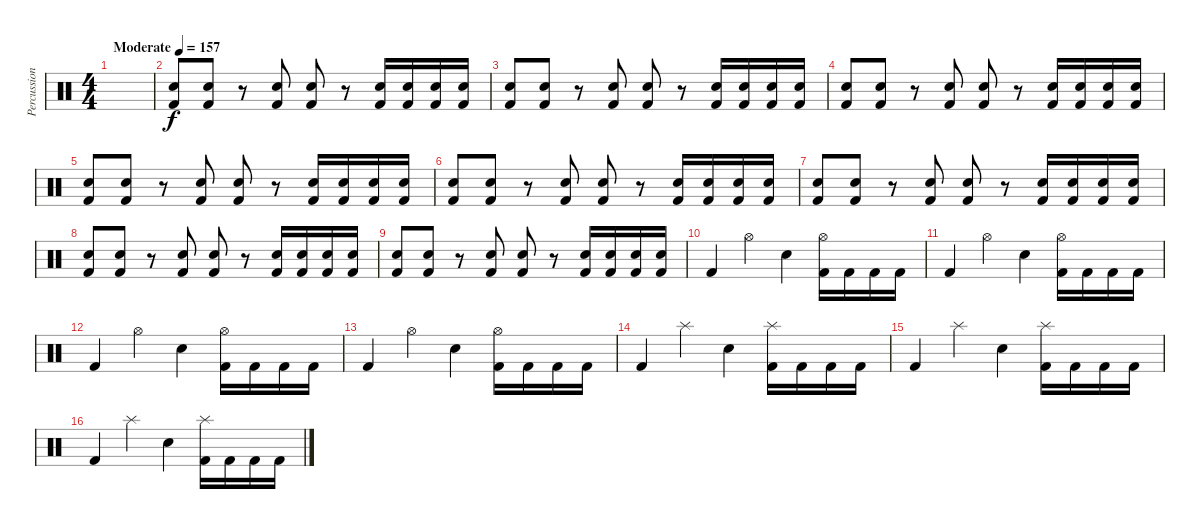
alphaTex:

\track ("Percussion" "Percussion") {instrument percussion}
\staff {score}
\articulation defaults
\ts (4 4)
\tempo (157 "Moderate")
\clef neutral
\ks c
|
("Kick (hit) 2" "Snare (hit) 2").8 ("Kick (hit) 2" "Snare (hit) 2").8 r.8 ("Kick (hit) 2" "Snare (hit) 2").8 ("Kick (hit) 2" "Snare (hit) 2").8 r.8 ("Kick (hit) 2" "Snare (hit) 2").16 ("Kick (hit) 2" "Snare (hit) 2").16 ("Kick (hit) 2" "Snare (hit) 2").16 ("Kick (hit) 2" "Snare (hit) 2").16 |
("Kick (hit) 2" "Snare (hit) 2").8 ("Kick (hit) 2" "Snare (hit) 2").8 r.8 ("Kick (hit) 2" "Snare (hit) 2").8 ("Kick (hit) 2" "Snare (hit) 2").8 r.8 ("Kick (hit) 2" "Snare (hit) 2").16 ("Kick (hit) 2" "Snare (hit) 2").16 ("Kick (hit) 2" "Snare (hit) 2").16 ("Kick (hit) 2" "Snare (hit) 2").16 |
("Kick (hit) 2" "Snare (hit) 2").8 ("Kick (hit) 2" "Snare (hit) 2").8 r.8 ("Kick (hit) 2" "Snare (hit) 2").8 ("Kick (hit) 2" "Snare (hit) 2").8 r.8 ("Kick (hit) 2" "Snare (hit) 2").16 ("Kick (hit) 2" "Snare (hit) 2").16 ("Kick (hit) 2" "Snare (hit) 2").16 ("Kick (hit) 2" "Snare (hit) 2").16 |
("Kick (hit) 2" "Snare (hit) 2").8 ("Kick (hit) 2" "Snare (hit) 2").8 r.8 ("Kick (hit) 2" "Snare (hit) 2").8 ("Kick (hit) 2" "Snare (hit) 2").8 r.8 ("Kick (hit) 2" "Snare (hit) 2").16 ("Kick (hit) 2" "Snare (hit) 2").16 ("Kick (hit) 2" "Snare (hit) 2").16 ("Kick (hit) 2" "Snare (hit) 2").16 |
("Kick (hit) 2" "Snare (hit) 2").8 ("Kick (hit) 2" "Snare (hit) 2").8 r.8 ("Kick (hit) 2" "Snare (hit) 2").8 ("Kick (hit) 2" "Snare (hit) 2").8 r.8 ("Kick (hit) 2" "Snare (hit) 2").16 ("Kick (hit) 2" "Snare (hit) 2").16 ("Kick (hit) 2" "Snare (hit) 2").16 ("Kick (hit) 2" "Snare (hit) 2").16 |
("Kick (hit) 2" "Snare (hit) 2").8 ("Kick (hit) 2" "Snare (hit) 2").8 r.8 ("Kick (hit) 2" "Snare (hit) 2").8 ("Kick (hit) 2" "Snare (hit) 2").8 r.8 ("Kick (hit) 2" "Snare (hit) 2").16 ("Kick (hit) 2" "Snare (hit) 2").16 ("Kick (hit) 2" "Snare (hit) 2").16 ("Kick (hit) 2" "Snare (hit) 2").16 |
("Kick (hit) 2" "Snare (hit) 2").8 ("Kick (hit) 2" "Snare (hit) 2").8 r.8 ("Kick (hit) 2" "Snare (hit) 2").8 ("Kick (hit) 2" "Snare (hit) 2").8 r.8 ("Kick (hit) 2" "Snare (hit) 2").16 ("Kick (hit) 2" "Snare (hit) 2").16 ("Kick (hit) 2" "Snare (hit) 2").16 ("Kick (hit) 2" "Snare (hit) 2").16 |
("Kick (hit) 2" "Snare (hit) 2").8 ("Kick (hit) 2" "Snare (hit) 2").8 r.8 ("Kick (hit) 2" "Snare (hit) 2").8 ("Kick (hit) 2" "Snare (hit) 2").8 r.8 ("Kick (hit) 2" "Snare (hit) 2").16 ("Kick (hit) 2" "Snare (hit) 2").16 ("Kick (hit) 2" "Snare (hit) 2").16 ("Kick (hit) 2" "Snare (hit) 2").16 |
"Kick (hit) 2".4 "Hi-Hat (open)".4 "Snare (hit) 2".4 ("Hi-Hat (open)" "Kick (hit) 2").16 "Kick (hit) 2".16 "Kick (hit) 2".16 "Kick (hit) 2".16 |
"Kick (hit) 2".4 "Hi-Hat (open)".4 "Snare (hit) 2".4 ("Hi-Hat (open)" "Kick (hit) 2").16 "Kick (hit) 2".16 "Kick (hit) 2".16 "Kick (hit) 2".16 |
"Kick (hit) 2".4 "Hi-Hat (open)".4 "Snare (hit) 2".4 ("Hi-Hat (open)" "Kick (hit) 2").16 "Kick (hit) 2".16 "Kick (hit) 2".16 "Kick (hit) 2".16 |
"Kick (hit) 2".4 "Hi-Hat (open)".4 "Snare (hit) 2".4 ("Hi-Hat (open)" "Kick (hit) 2").16 "Kick (hit) 2".16 "Kick (hit) 2".16 "Kick (hit) 2".16 |
"Kick (hit) 2".4 "Splash (hit)".4 "Snare (hit) 2".4 ("Splash (hit)" "Kick (hit) 2").16 "Kick (hit) 2".16 "Kick (hit) 2".16 "Kick (hit) 2".16 |
"Kick (hit) 2".4 "Splash (hit)".4 "Snare (hit) 2".4 ("Splash (hit)" "Kick (hit) 2").16 "Kick (hit) 2".16 "Kick (hit) 2".16 "Kick (hit) 2".16 |
"Kick (hit) 2".4 "Splash (hit)".4 "Snare (hit) 2".4 ("Splash (hit)" "Kick (hit) 2").16 "Kick (hit) 2".16 "Kick (hit) 2".16 "Kick (hit) 2".16
